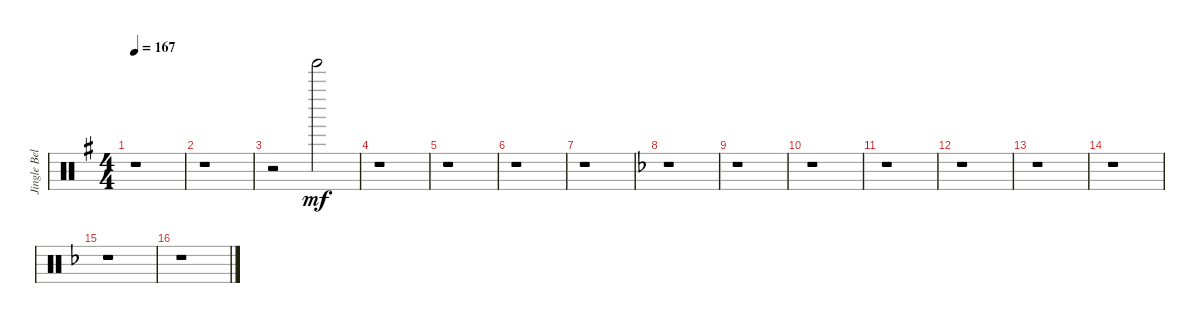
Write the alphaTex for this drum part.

\track ("Jingle Bell" "Jingle Bel") {instrument percussion}
\staff {score}
\articulation defaults
\ts (4 4)
\tempo 167
\clef neutral
\ks eminor
r.1{dy mf} |
r.1 |
r.2 "Tinkle Bell (hit)".2 |
r.1 |
r.1 |
r.1 |
r.1 |
\ks dminor
r.1 |
r.1 |
r.1 |
r.1 |
r.1 |
r.1 |
r.1 |
r.1 |
r.1
